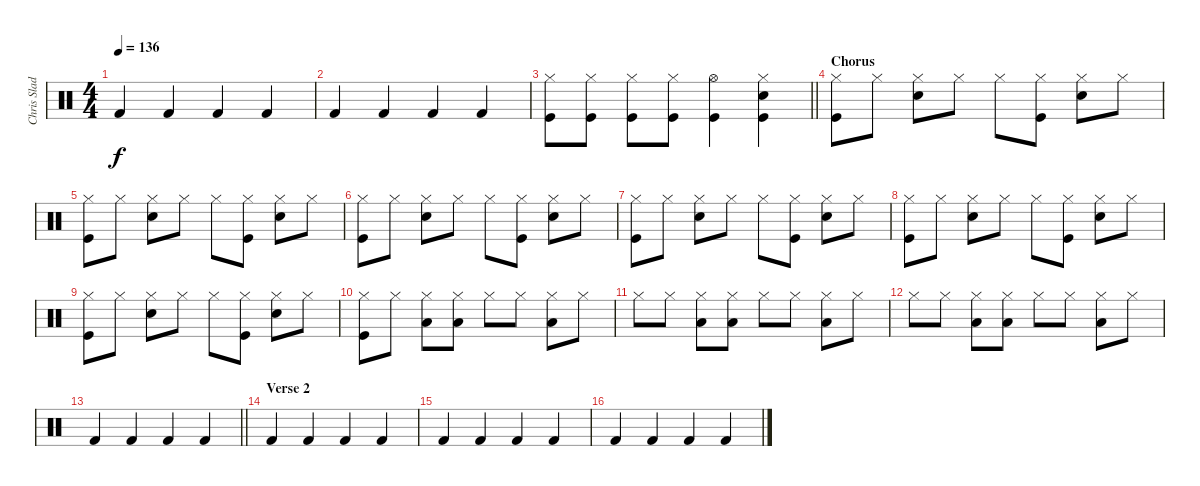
\track ("Chris Slade" "Chris Slad") {instrument percussion}
\staff {score}
\articulation defaults
\ts (4 4)
\tempo 136
\clef neutral
\ks c "Kick (hit) 2".4{dy f} "Kick (hit) 2".4 "Kick (hit) 2".4 "Kick (hit) 2".4
|
"Kick (hit) 2".4 "Kick (hit) 2".4 "Kick (hit) 2".4 "Kick (hit) 2".4 |
\barLineRight lightlight
("Hi-Hat (closed)" "Kick (hit)").8 ("Hi-Hat (closed)" "Kick (hit)").8 ("Hi-Hat (closed)" "Kick (hit)").8 ("Hi-Hat (closed)" "Kick (hit)").8 ("Hi-Hat (open)" "Kick (hit)").4 ("Hi-Hat (closed)" "Snare (hit) 2" "Kick (hit)").4 |
\section ("" "Chorus")
("Hi-Hat (closed)" "Kick (hit)").8 "Hi-Hat (closed)".8 ("Hi-Hat (closed)" "Snare (hit) 2").8 "Hi-Hat (closed)".8 "Hi-Hat (closed)".8 ("Hi-Hat (closed)" "Kick (hit)").8 ("Hi-Hat (closed)" "Snare (hit) 2").8 "Hi-Hat (closed)".8 |
("Hi-Hat (closed)" "Kick (hit)").8 "Hi-Hat (closed)".8 ("Hi-Hat (closed)" "Snare (hit) 2").8 "Hi-Hat (closed)".8 "Hi-Hat (closed)".8 ("Hi-Hat (closed)" "Kick (hit)").8 ("Hi-Hat (closed)" "Snare (hit) 2").8 "Hi-Hat (closed)".8 |
("Hi-Hat (closed)" "Kick (hit)").8 "Hi-Hat (closed)".8 ("Hi-Hat (closed)" "Snare (hit) 2").8 "Hi-Hat (closed)".8 "Hi-Hat (closed)".8 ("Hi-Hat (closed)" "Kick (hit)").8 ("Hi-Hat (closed)" "Snare (hit) 2").8 "Hi-Hat (closed)".8 |
("Hi-Hat (closed)" "Kick (hit)").8 "Hi-Hat (closed)".8 ("Hi-Hat (closed)" "Snare (hit) 2").8 "Hi-Hat (closed)".8 "Hi-Hat (closed)".8 ("Hi-Hat (closed)" "Kick (hit)").8 ("Hi-Hat (closed)" "Snare (hit) 2").8 "Hi-Hat (closed)".8 |
("Hi-Hat (closed)" "Kick (hit)").8 "Hi-Hat (closed)".8 ("Hi-Hat (closed)" "Snare (hit) 2").8 "Hi-Hat (closed)".8 "Hi-Hat (closed)".8 ("Hi-Hat (closed)" "Kick (hit)").8 ("Hi-Hat (closed)" "Snare (hit) 2").8 "Hi-Hat (closed)".8 |
("Hi-Hat (closed)" "Kick (hit)").8 "Hi-Hat (closed)".8 ("Hi-Hat (closed)" "Snare (hit) 2").8 "Hi-Hat (closed)".8 "Hi-Hat (closed)".8 ("Hi-Hat (closed)" "Kick (hit)").8 ("Hi-Hat (closed)" "Snare (hit) 2").8 "Hi-Hat (closed)".8 |
("Hi-Hat (closed)" "Kick (hit)").8 "Hi-Hat (closed)".8 ("Hi-Hat (closed)" "Low Tom (hit)").8 ("Hi-Hat (closed)" "Low Tom (hit)").8 "Hi-Hat (closed)".8 "Hi-Hat (closed)".8 ("Hi-Hat (closed)" "Low Tom (hit)").8 "Hi-Hat (closed)".8 |
"Hi-Hat (closed)".8 "Hi-Hat (closed)".8 ("Hi-Hat (closed)" "Low Tom (hit)").8 ("Hi-Hat (closed)" "Low Tom (hit)").8 "Hi-Hat (closed)".8 "Hi-Hat (closed)".8 ("Hi-Hat (closed)" "Low Tom (hit)").8 "Hi-Hat (closed)".8 |
"Hi-Hat (closed)".8 "Hi-Hat (closed)".8 ("Hi-Hat (closed)" "Low Tom (hit)").8 ("Hi-Hat (closed)" "Low Tom (hit)").8 "Hi-Hat (closed)".8 "Hi-Hat (closed)".8 ("Hi-Hat (closed)" "Low Tom (hit)").8 "Hi-Hat (closed)".8 |
\barLineRight lightlight "Kick (hit) 2".4 "Kick (hit) 2".4 "Kick (hit) 2".4 "Kick (hit) 2".4
|
\section ("" "Verse 2")
"Kick (hit) 2".4 "Kick (hit) 2".4 "Kick (hit) 2".4 "Kick (hit) 2".4 |
"Kick (hit) 2".4 "Kick (hit) 2".4 "Kick (hit) 2".4 "Kick (hit) 2".4 |
"Kick (hit) 2".4 "Kick (hit) 2".4 "Kick (hit) 2".4 "Kick (hit) 2".4
